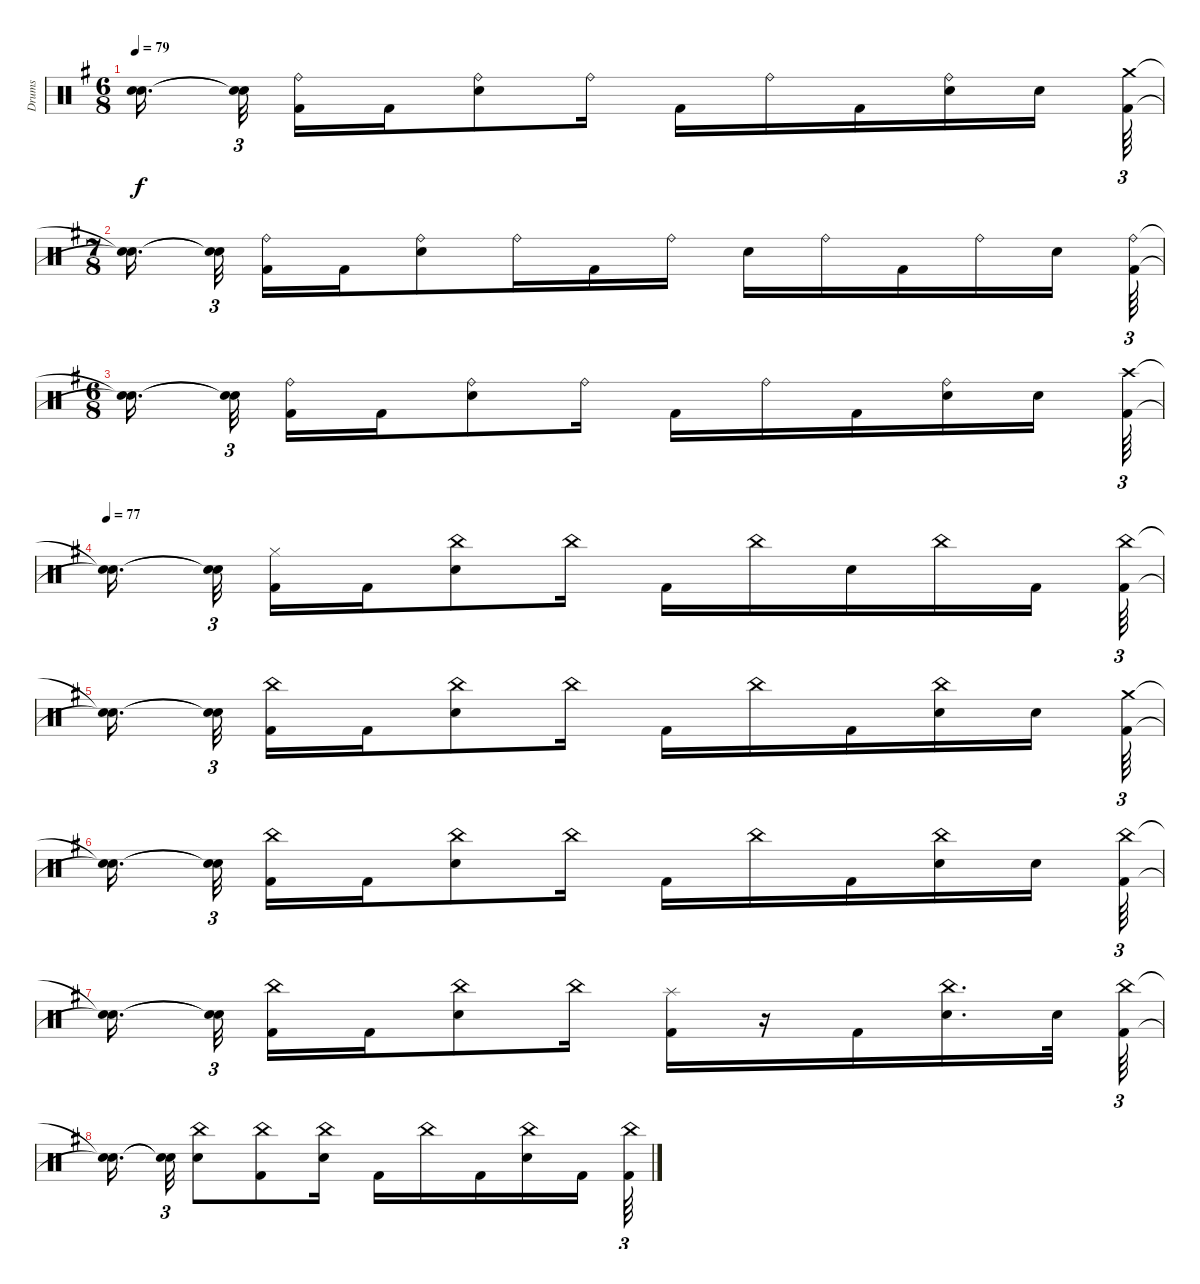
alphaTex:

\track ("Drums" "Drums") {instrument percussion}
\staff {score}
\articulation defaults
\ts (6 8)
\tempo 79
\clef neutral
\ks g
("Snare (hit)"{t} "Snare (hit)"{t}).16{d dy f beam splitsecondary} ("Snare (hit)"{t} "Snare (hit)"{t}).32{tu (3 2) beam splitsecondary} ("Kick (hit) 2" "Ride (bell)").16 "Kick (hit) 2".16 ("Electric Snare (hit)" "Ride (bell)").8 "Ride (bell)".16 "Kick (hit) 2".16 "Ride (bell)".16 "Kick (hit) 2".16 ("Electric Snare (hit)" "Ride (bell)").16 "Electric Snare (hit)".16{beam splitsecondary} ("Kick (hit) 2" "Crash medium (hit)").64{tu (3 2)} |
\ts (7 8)
("Snare (hit)"{t} "Snare (hit)"{t}).16{d beam splitsecondary} ("Snare (hit)"{t} "Snare (hit)"{t}).32{tu (3 2)} ("Kick (hit) 2" "Ride (bell)").16 "Kick (hit) 2".16 ("Electric Snare (hit)" "Ride (bell)").8 "Ride (bell)".16 "Kick (hit) 2".16 "Ride (bell)".16 "Electric Snare (hit)".16 "Ride (bell)".16 "Kick (hit) 2".16 "Ride (bell)".16 "Electric Snare (hit)".16 ("Ride (bell)" "Kick (hit) 2").64{tu (3 2)} |
\ts (6 8)
("Snare (hit)"{t} "Snare (hit)"{t}).16{d beam splitsecondary} ("Snare (hit)"{t} "Snare (hit)"{t}).32{tu (3 2) beam splitsecondary} ("Kick (hit) 2" "Ride (bell)").16 "Kick (hit) 2".16 ("Electric Snare (hit)" "Ride (bell)").8 "Ride (bell)".16 "Kick (hit) 2".16 "Ride (bell)".16 "Kick (hit) 2".16 ("Electric Snare (hit)" "Ride (bell)").16 "Electric Snare (hit)".16{beam splitsecondary} ("Kick (hit) 2" "Crash high (hit)").64{tu (3 2)} |
\tempo 77
("Snare (hit)"{t} "Snare (hit)"{t}).16{d beam splitsecondary} ("Snare (hit)"{t} "Snare (hit)"{t}).32{tu (3 2) beam splitsecondary} ("Kick (hit) 2" "Hi-Hat (closed)").16 "Kick (hit) 2".16 ("Electric Snare (hit)" "China (hit)").8 "China (hit)".16 "Kick (hit) 2".16 "China (hit)".16 "Electric Snare (hit)".16 "China (hit)".16 "Kick (hit) 2".16{beam splitsecondary} ("Kick (hit) 2" "China (hit)").64{tu (3 2)} |
("Snare (hit)"{t} "Snare (hit)"{t}).16{d beam splitsecondary} ("Snare (hit)"{t} "Snare (hit)"{t}).32{tu (3 2) beam splitsecondary} ("Kick (hit) 2" "China (hit)").16 "Kick (hit) 2".16 ("Electric Snare (hit)" "China (hit)").8 "China (hit)".16 "Kick (hit) 2".16 "China (hit)".16 "Kick (hit) 2".16 ("Electric Snare (hit)" "China (hit)").16 "Electric Snare (hit)".16{beam splitsecondary} ("Kick (hit) 2" "Crash medium (hit)").64{tu (3 2)} |
("Snare (hit)"{t} "Snare (hit)"{t}).16{d beam splitsecondary} ("Snare (hit)"{t} "Snare (hit)"{t}).32{tu (3 2) beam splitsecondary} ("Kick (hit) 2" "China (hit)").16 "Kick (hit) 2".16 ("Electric Snare (hit)" "China (hit)").8 "China (hit)".16 "Kick (hit) 2".16 "China (hit)".16 "Kick (hit) 2".16 ("Electric Snare (hit)" "China (hit)").16 "Electric Snare (hit)".16{beam splitsecondary} ("Kick (hit) 2" "China (hit)").64{tu (3 2)} |
("Snare (hit)"{t} "Snare (hit)"{t}).16{d beam splitsecondary} ("Snare (hit)"{t} "Snare (hit)"{t}).32{tu (3 2) beam splitsecondary} ("Kick (hit) 2" "China (hit)").16 "Kick (hit) 2".16 ("Electric Snare (hit)" "China (hit)").8 "China (hit)".16 ("Kick (hit) 2" "Splash (hit)").16 r.16 "Kick (hit) 2".16 ("Electric Snare (hit)" "China (hit)").16{d} "Electric Snare (hit)".32 ("Kick (hit) 2" "China (hit)").64{tu (3 2)} |
("Snare (hit)"{t} "Snare (hit)"{t}).16{d beam splitsecondary} ("Snare (hit)"{t} "Snare (hit)"{t}).32{tu (3 2)} ("Electric Snare (hit)" "China (hit)").8 ("China (hit)" "Kick (hit) 2").8 ("China (hit)" "Electric Snare (hit)").16 "Kick (hit) 2".16 "China (hit)".16 "Kick (hit) 2".16 ("China (hit)" "Electric Snare (hit)").16 "Kick (hit) 2".16{beam splitsecondary} ("China (hit)" "Kick (hit) 2").64{tu (3 2)}
